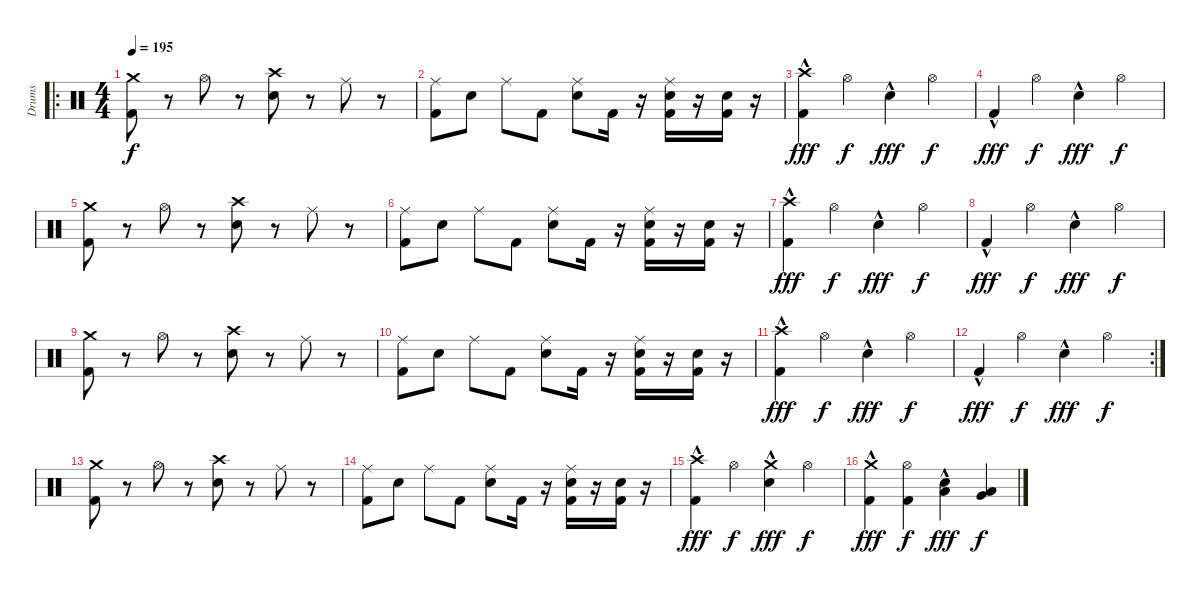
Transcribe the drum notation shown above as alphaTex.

\track ("Drums" "Drums") {instrument percussion}
\staff {score}
\articulation defaults
\ro
\ts (4 4)
\tempo 195
\clef neutral
\ks c
("Crash medium (hit)" "Kick (hit) 2").8{dy f} r.8 "Hi-Hat (open)".8 r.8 ("Crash high (hit)" "Electric Snare (hit)").8 r.8 "Ride (middle)".8 r.8 |
("Ride (middle)" "Kick (hit) 2").8 "Electric Snare (hit)".8 "Ride (middle)".8 "Kick (hit) 2".8 ("Ride (middle)" "Electric Snare (hit)").8 "Kick (hit) 2".16 r.16 ("Ride (middle)" "Electric Snare (hit)" "Kick (hit) 2").16 r.16 ("Electric Snare (hit)" "Kick (hit) 2").16 r.16 |
("Crash high (hit)" "Kick (hit) 2"{hac}).4{dy fff} "Hi-Hat (open)".4{dy f} "Electric Snare (hit)"{hac}.4{dy fff} "Hi-Hat (open)".4{dy f} |
"Kick (hit) 2"{hac}.4{dy fff} "Hi-Hat (open)".4{dy f} "Electric Snare (hit)"{hac}.4{dy fff} "Hi-Hat (open)".4{dy f} |
("Crash medium (hit)" "Kick (hit) 2").8 r.8 "Hi-Hat (open)".8 r.8 ("Crash high (hit)" "Electric Snare (hit)").8 r.8 "Ride (middle)".8 r.8 |
("Ride (middle)" "Kick (hit) 2").8 "Electric Snare (hit)".8 "Ride (middle)".8 "Kick (hit) 2".8 ("Ride (middle)" "Electric Snare (hit)").8 "Kick (hit) 2".16 r.16 ("Ride (middle)" "Electric Snare (hit)" "Kick (hit) 2").16 r.16 ("Electric Snare (hit)" "Kick (hit) 2").16 r.16 |
("Crash high (hit)" "Kick (hit) 2"{hac}).4{dy fff} "Hi-Hat (open)".4{dy f} "Electric Snare (hit)"{hac}.4{dy fff} "Hi-Hat (open)".4{dy f} |
"Kick (hit) 2"{hac}.4{dy fff} "Hi-Hat (open)".4{dy f} "Electric Snare (hit)"{hac}.4{dy fff} "Hi-Hat (open)".4{dy f} |
("Crash medium (hit)" "Kick (hit) 2").8 r.8 "Hi-Hat (open)".8 r.8 ("Crash high (hit)" "Electric Snare (hit)").8 r.8 "Ride (middle)".8 r.8 |
("Ride (middle)" "Kick (hit) 2").8 "Electric Snare (hit)".8 "Ride (middle)".8 "Kick (hit) 2".8 ("Ride (middle)" "Electric Snare (hit)").8 "Kick (hit) 2".16 r.16 ("Ride (middle)" "Electric Snare (hit)" "Kick (hit) 2").16 r.16 ("Electric Snare (hit)" "Kick (hit) 2").16 r.16 |
("Crash high (hit)" "Kick (hit) 2"{hac}).4{dy fff} "Hi-Hat (open)".4{dy f} "Electric Snare (hit)"{hac}.4{dy fff} "Hi-Hat (open)".4{dy f} |
\rc 2 "Kick (hit) 2"{hac}.4{dy fff} "Hi-Hat (open)".4{dy f} "Electric Snare (hit)"{hac}.4{dy fff} "Hi-Hat (open)".4{dy f}
|
("Crash medium (hit)" "Kick (hit) 2").8 r.8 "Hi-Hat (open)".8 r.8 ("Crash high (hit)" "Electric Snare (hit)").8 r.8 "Ride (middle)".8 r.8 |
("Ride (middle)" "Kick (hit) 2").8 "Electric Snare (hit)".8 "Ride (middle)".8 "Kick (hit) 2".8 ("Ride (middle)" "Electric Snare (hit)").8 "Kick (hit) 2".16 r.16 ("Ride (middle)" "Electric Snare (hit)" "Kick (hit) 2").16 r.16 ("Electric Snare (hit)" "Kick (hit) 2").16 r.16 |
("Crash high (hit)" "Kick (hit) 2"{hac}).4{dy fff} "Hi-Hat (open)".4{dy f} ("Crash medium (hit)" "Electric Snare (hit)"{hac}).4{dy fff} "Hi-Hat (open)".4{dy f} |
("Crash medium (hit)" "Kick (hit) 2"{hac}).4{dy fff} ("Hi-Hat (open)" "Kick (hit) 2").4{dy f} ("Electric Snare (hit)"{hac} "Low Tom (hit)").4{dy fff} ("Low Floor Tom (hit)" "Very Low Tom (hit)").4{dy f}
